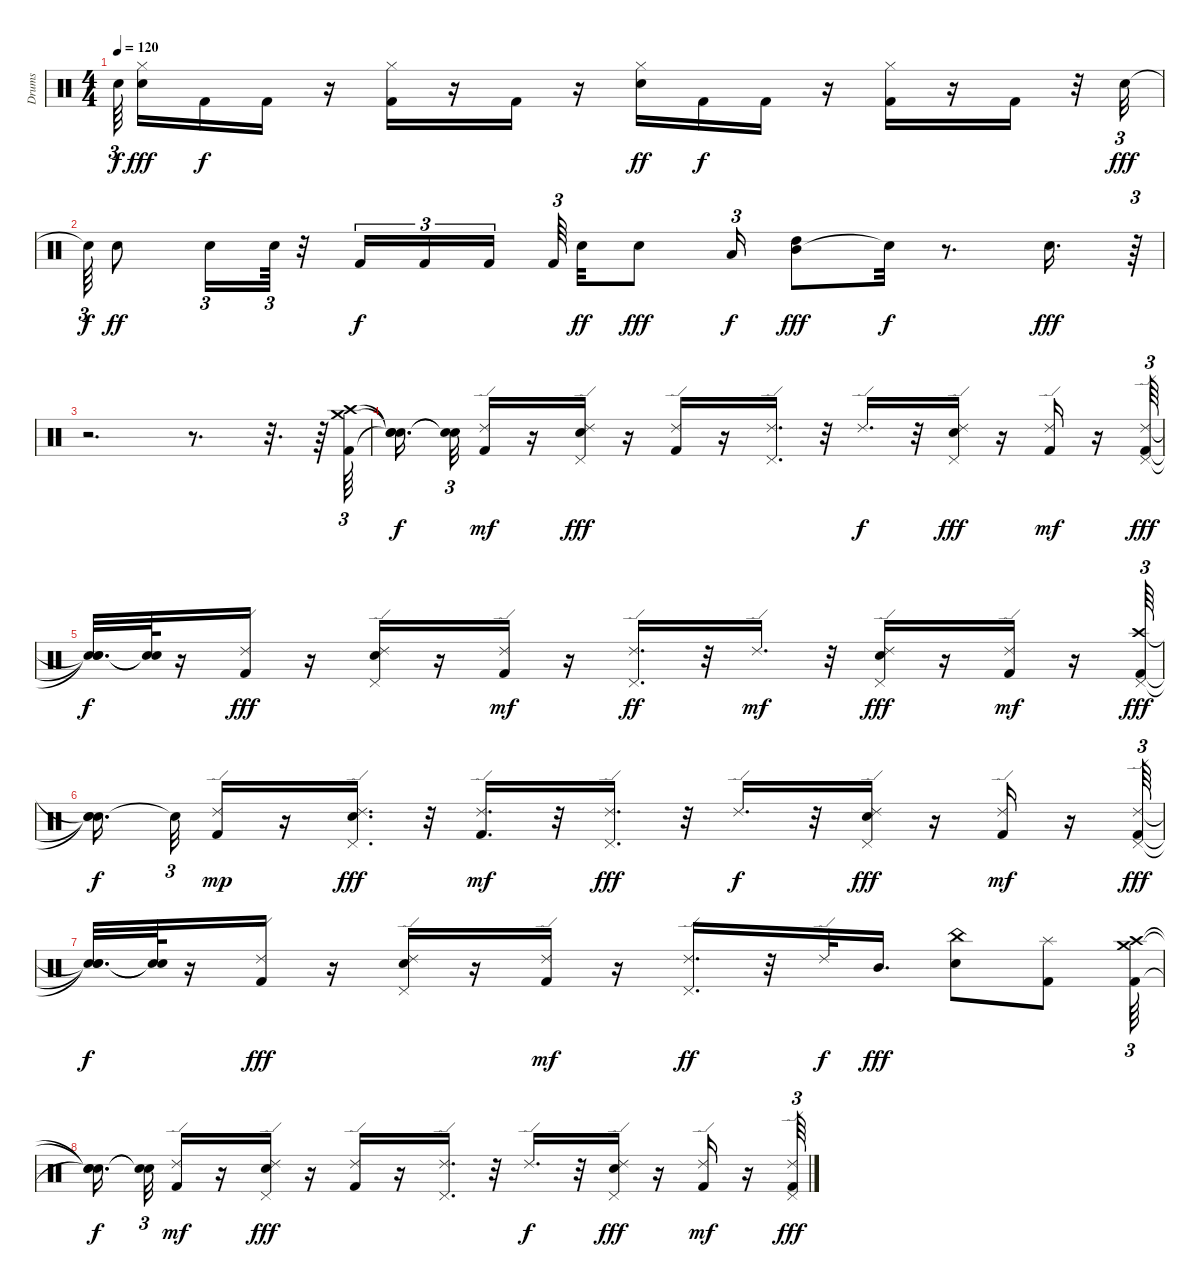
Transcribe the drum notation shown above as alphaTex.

\track ("Drums" "Drums") {instrument percussion}
\staff {score}
\articulation defaults
\ts (4 4)
\tempo 120
\clef neutral
\ks c "Snare (hit)"{t}.64{tu (3 2) dy f beam splitsecondary}
("Hi-Hat (closed)" "Snare (hit) 2").16{dy fff} "Kick (hit) 2".16{dy f} "Kick (hit) 2".16 r.16 ("Kick (hit) 2" "Hi-Hat (closed)").16 r.16 "Kick (hit) 2".16 r.16 ("Hi-Hat (closed)" "Snare (hit) 2").16{dy ff} "Kick (hit) 2".16{dy f} "Kick (hit) 2".16 r.16 ("Kick (hit) 2" "Hi-Hat (closed)").16 r.16 "Kick (hit) 2".16 r.32 "Snare (hit) 2".32{tu (3 2) dy fff} |
"Snare (hit)"{t}.64{tu (3 2) dy f} "Snare (hit) 2".8{dy ff} "Snare (hit) 2".16{tu (3 2)} "Snare (hit) 2".64{tu (3 2)} r.32 "Kick (hit) 2".16{tu (3 2) dy f} "Kick (hit) 2".16{tu (3 2)} "Kick (hit) 2".16{tu (3 2) beam splitsecondary} "Kick (hit) 2".64{tu (3 2) beam splitsecondary} "Snare (hit) 2".32{dy ff} "Snare (hit) 2".8{dy fff} "Low Tom (hit)".16{tu (3 2) dy f} ("Mid Tom (hit)" "High Tom (hit)").8{dy fff} "Snare (hit)"{t}.32{dy f} r.8{d} "Snare (hit) 2".16{d dy fff} r.64{tu (3 2)} |
r.2{d} r.8{d} r.32{d} r.64 ("Crash medium (hit)" "Kick (hit) 2" "Crash high (hit)").64{tu (3 2)} |
("Snare (hit)"{t} "Snare (hit)"{t} "Snare (hit)"{t}).16{d dy f beam splitsecondary} ("Snare (hit)"{t} "Snare (hit)"{t}).32{tu (3 2)} ("Kick (hit) 2" "Ride (edge) 2").16{dy mf} r.16 ("Ride (edge) 2" "Pedal Hi-Hat (hit)" "Snare (hit) 2").16{dy fff} r.16 ("Kick (hit) 2" "Ride (edge) 2").16 r.16 ("Pedal Hi-Hat (hit)" "Ride (edge) 2").16{d} r.32 "Ride (edge) 2".16{d dy f} r.32 ("Pedal Hi-Hat (hit)" "Snare (hit) 2" "Ride (edge) 2").16{dy fff} r.16 ("Kick (hit) 2" "Ride (edge) 2").16{dy mf} r.16 ("Ride (edge) 2" "Pedal Hi-Hat (hit)" "Kick (hit) 2").64{tu (3 2) dy fff} |
("Snare (hit)"{t} "Snare (hit)"{t} "Snare (hit)"{t}).32{d dy f} ("Snare (hit)"{t} "Snare (hit)"{t}).64 r.16 ("Ride (edge) 2" "Kick (hit) 2").16{dy fff} r.16 ("Snare (hit) 2" "Pedal Hi-Hat (hit)" "Ride (edge) 2").16 r.16 ("Kick (hit) 2" "Ride (edge) 2").16{dy mf} r.16 ("Pedal Hi-Hat (hit)" "Ride (edge) 2").16{d dy ff} r.32 "Ride (edge) 2".16{d dy mf} r.32 ("Pedal Hi-Hat (hit)" "Snare (hit) 2" "Ride (edge) 2").16{dy fff} r.16 ("Kick (hit) 2" "Ride (edge) 2").16{dy mf} r.16 ("Pedal Hi-Hat (hit)" "Crash high (hit)" "Kick (hit) 2").64{tu (3 2) dy fff} |
("Snare (hit)"{t} "Snare (hit)"{t} "Snare (hit)"{t}).16{d dy f beam splitsecondary} "Snare (hit)"{t}.32{tu (3 2)} ("Kick (hit) 2" "Ride (edge) 2").16{dy mp} r.16 ("Snare (hit) 2" "Ride (edge) 2" "Pedal Hi-Hat (hit)").16{d dy fff} r.32 ("Kick (hit) 2" "Ride (edge) 2").16{d dy mf} r.32 ("Pedal Hi-Hat (hit)" "Ride (edge) 2").16{d dy fff} r.32 "Ride (edge) 2".16{d dy f} r.32 ("Pedal Hi-Hat (hit)" "Snare (hit) 2" "Ride (edge) 2").16{dy fff} r.16 ("Kick (hit) 2" "Ride (edge) 2").16{dy mf} r.16 ("Ride (edge) 2" "Pedal Hi-Hat (hit)" "Kick (hit) 2").64{tu (3 2) dy fff} |
("Snare (hit)"{t} "Snare (hit)"{t} "Snare (hit)"{t}).32{d dy f} ("Snare (hit)"{t} "Snare (hit)"{t}).64 r.16 ("Ride (edge) 2" "Kick (hit) 2").16{dy fff} r.16 ("Snare (hit) 2" "Pedal Hi-Hat (hit)" "Ride (edge) 2").16 r.16 ("Kick (hit) 2" "Ride (edge) 2").16{dy mf} r.16 ("Pedal Hi-Hat (hit)" "Ride (edge) 2").16{d dy ff} r.32 "Ride (edge) 2".32{dy f} "Mid Tom (hit)".16{d dy fff} ("Snare (hit) 2" "China (hit)").8 ("Splash (hit)" "Kick (hit) 2").8 ("Crash medium (hit)" "Kick (hit) 2" "Crash high (hit)").64{tu (3 2)} |
("Snare (hit)"{t} "Snare (hit)"{t} "Snare (hit)"{t}).16{d dy f beam splitsecondary} ("Snare (hit)"{t} "Snare (hit)"{t}).32{tu (3 2)} ("Kick (hit) 2" "Ride (edge) 2").16{dy mf} r.16 ("Ride (edge) 2" "Pedal Hi-Hat (hit)" "Snare (hit) 2").16{dy fff} r.16 ("Kick (hit) 2" "Ride (edge) 2").16 r.16 ("Pedal Hi-Hat (hit)" "Ride (edge) 2").16{d} r.32 "Ride (edge) 2".16{d dy f} r.32 ("Pedal Hi-Hat (hit)" "Snare (hit) 2" "Ride (edge) 2").16{dy fff} r.16 ("Kick (hit) 2" "Ride (edge) 2").16{dy mf} r.16 ("Ride (edge) 2" "Pedal Hi-Hat (hit)" "Kick (hit) 2").64{tu (3 2) dy fff}
